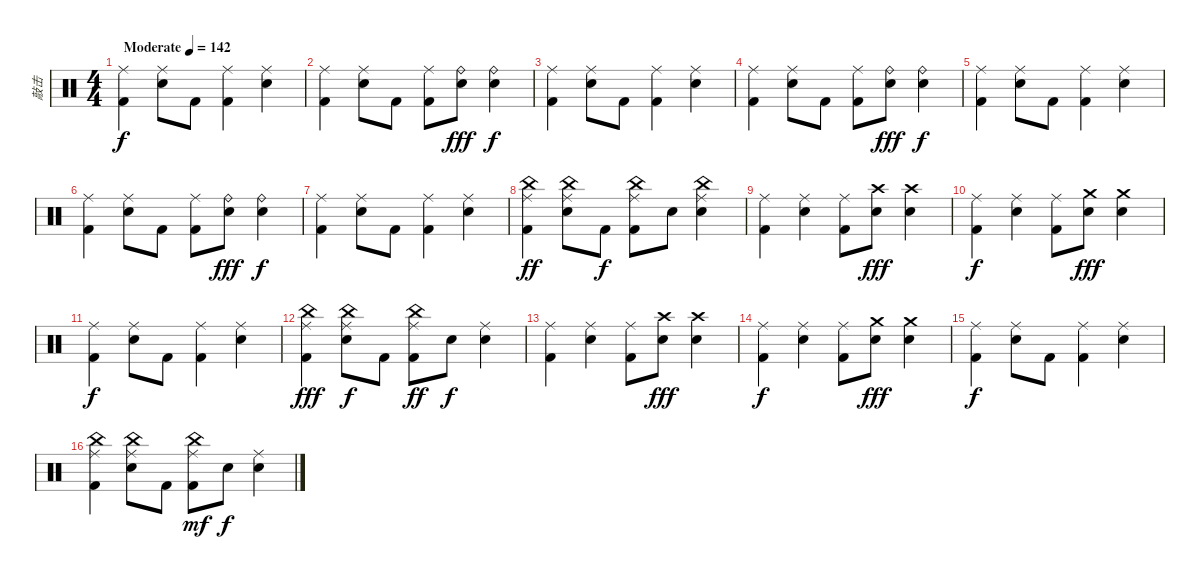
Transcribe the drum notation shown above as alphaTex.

\track ("敲击" "敲击") {instrument percussion}
\staff {score}
\articulation defaults
\ts (4 4)
\tempo (142 "Moderate")
\clef neutral
\ks c
("Ride (middle)" "Kick (hit) 2").4{dy f} ("Ride (middle)" "Electric Snare (hit)").8 "Kick (hit) 2".8 ("Ride (middle)" "Kick (hit) 2").4 ("Ride (middle)" "Electric Snare (hit)").4 |
("Ride (middle)" "Kick (hit) 2").4 ("Ride (middle)" "Electric Snare (hit)").8 "Kick (hit) 2".8 ("Ride (middle)" "Kick (hit) 2").8 ("Ride (bell)" "Electric Snare (hit)").8{dy fff} ("Ride (bell)" "Electric Snare (hit)").4{dy f} |
("Ride (middle)" "Kick (hit) 2").4 ("Ride (middle)" "Electric Snare (hit)").8 "Kick (hit) 2".8 ("Ride (middle)" "Kick (hit) 2").4 ("Ride (middle)" "Electric Snare (hit)").4 |
("Ride (middle)" "Kick (hit) 2").4 ("Ride (middle)" "Electric Snare (hit)").8 "Kick (hit) 2".8 ("Ride (middle)" "Kick (hit) 2").8 ("Ride (bell)" "Electric Snare (hit)").8{dy fff} ("Ride (bell)" "Electric Snare (hit)").4{dy f} |
("Ride (middle)" "Kick (hit) 2").4 ("Ride (middle)" "Electric Snare (hit)").8 "Kick (hit) 2".8 ("Ride (middle)" "Kick (hit) 2").4 ("Ride (middle)" "Electric Snare (hit)").4 |
("Ride (middle)" "Kick (hit) 2").4 ("Ride (middle)" "Electric Snare (hit)").8 "Kick (hit) 2".8 ("Ride (middle)" "Kick (hit) 2").8 ("Ride (bell)" "Electric Snare (hit)").8{dy fff} ("Ride (bell)" "Electric Snare (hit)").4{dy f} |
("Ride (middle)" "Kick (hit) 2").4 ("Ride (middle)" "Electric Snare (hit)").8 "Kick (hit) 2".8 ("Ride (middle)" "Kick (hit) 2").4 ("Ride (middle)" "Electric Snare (hit)").4 |
("Ride (middle)" "China (hit)" "Kick (hit) 2").4{dy ff} ("Ride (middle)" "China (hit)" "Electric Snare (hit)").8 "Kick (hit) 2".8{dy f} ("Ride (middle)" "China (hit)" "Kick (hit) 2").8 "Electric Snare (hit)".8 ("Ride (middle)" "China (hit)" "Electric Snare (hit)").4 |
("Ride (middle)" "Kick (hit) 2").4 ("Ride (middle)" "Electric Snare (hit)").4 ("Ride (middle)" "Kick (hit) 2").8 ("Crash high (hit)" "Snare (hit) 2").8{dy fff} ("Crash high (hit)" "Snare (hit) 2").4 |
("Ride (middle)" "Kick (hit) 2").4{dy f} ("Ride (middle)" "Electric Snare (hit)").4 ("Ride (middle)" "Kick (hit) 2").8 ("Crash medium (hit)" "Snare (hit) 2").8{dy fff} ("Crash medium (hit)" "Snare (hit) 2").4 |
("Ride (middle)" "Kick (hit) 2").4{dy f} ("Ride (middle)" "Electric Snare (hit)").8 "Kick (hit) 2".8 ("Ride (middle)" "Kick (hit) 2").4 ("Ride (middle)" "Electric Snare (hit)").4 |
("Ride (middle)" "China (hit)" "Kick (hit) 2").4{dy fff} ("Ride (middle)" "China (hit)" "Electric Snare (hit)").8{dy f} "Kick (hit) 2".8 ("Ride (middle)" "China (hit)" "Kick (hit) 2").8{dy ff} "Electric Snare (hit)".8{dy f} ("Ride (middle)" "Electric Snare (hit)").4 |
("Ride (middle)" "Kick (hit) 2").4 ("Ride (middle)" "Electric Snare (hit)").4 ("Ride (middle)" "Kick (hit) 2").8 ("Crash high (hit)" "Snare (hit) 2").8{dy fff} ("Crash high (hit)" "Snare (hit) 2").4 |
("Ride (middle)" "Kick (hit) 2").4{dy f} ("Ride (middle)" "Electric Snare (hit)").4 ("Ride (middle)" "Kick (hit) 2").8 ("Crash medium (hit)" "Snare (hit) 2").8{dy fff} ("Crash medium (hit)" "Snare (hit) 2").4 |
("Ride (middle)" "Kick (hit) 2").4{dy f} ("Ride (middle)" "Electric Snare (hit)").8 "Kick (hit) 2".8 ("Ride (middle)" "Kick (hit) 2").4 ("Ride (middle)" "Electric Snare (hit)").4 |
("Ride (middle)" "China (hit)" "Kick (hit) 2").4 ("Ride (middle)" "China (hit)" "Electric Snare (hit)").8 "Kick (hit) 2".8 ("Ride (middle)" "China (hit)" "Kick (hit) 2").8{dy mf} "Electric Snare (hit)".8{dy f} ("Ride (middle)" "Electric Snare (hit)").4
